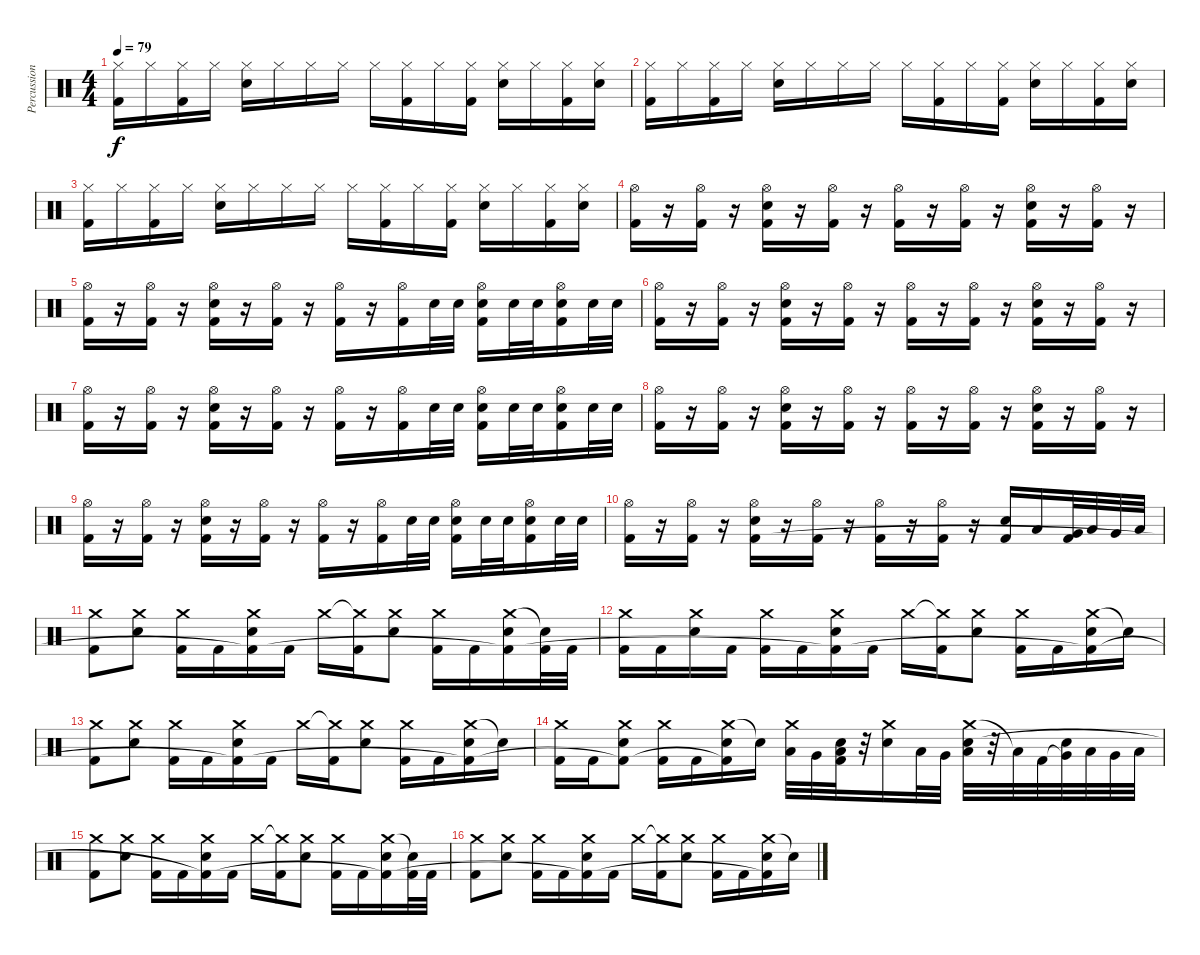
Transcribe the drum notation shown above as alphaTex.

\track ("Percussion" "Percussion") {instrument percussion}
\staff {score}
\articulation defaults
\ts (4 4)
\tempo 79
\clef neutral
\ks c
("Hi-Hat (closed)" "Kick (hit) 2").16{dy f} "Hi-Hat (closed)".16 ("Hi-Hat (closed)" "Kick (hit) 2").16 "Hi-Hat (closed)".16 ("Hi-Hat (closed)" "Snare (hit) 2").16 "Hi-Hat (closed)".16 "Hi-Hat (closed)".16 "Hi-Hat (closed)".16 "Hi-Hat (closed)".16 ("Hi-Hat (closed)" "Kick (hit) 2").16 "Hi-Hat (closed)".16 ("Hi-Hat (closed)" "Kick (hit) 2").16 ("Hi-Hat (closed)" "Snare (hit) 2").16 "Hi-Hat (closed)".16 ("Hi-Hat (closed)" "Kick (hit) 2").16 ("Hi-Hat (closed)" "Snare (hit) 2").16 |
("Hi-Hat (closed)" "Kick (hit) 2").16 "Hi-Hat (closed)".16 ("Hi-Hat (closed)" "Kick (hit) 2").16 "Hi-Hat (closed)".16 ("Hi-Hat (closed)" "Snare (hit) 2").16 "Hi-Hat (closed)".16 "Hi-Hat (closed)".16 "Hi-Hat (closed)".16 "Hi-Hat (closed)".16 ("Hi-Hat (closed)" "Kick (hit) 2").16 "Hi-Hat (closed)".16 ("Hi-Hat (closed)" "Kick (hit) 2").16 ("Hi-Hat (closed)" "Snare (hit) 2").16 "Hi-Hat (closed)".16 ("Hi-Hat (closed)" "Kick (hit) 2").16 ("Hi-Hat (closed)" "Snare (hit) 2").16 |
("Hi-Hat (closed)" "Kick (hit) 2").16 "Hi-Hat (closed)".16 ("Hi-Hat (closed)" "Kick (hit) 2").16 "Hi-Hat (closed)".16 ("Hi-Hat (closed)" "Snare (hit) 2").16 "Hi-Hat (closed)".16 "Hi-Hat (closed)".16 "Hi-Hat (closed)".16 "Hi-Hat (closed)".16 ("Hi-Hat (closed)" "Kick (hit) 2").16 "Hi-Hat (closed)".16 ("Hi-Hat (closed)" "Kick (hit) 2").16 ("Hi-Hat (closed)" "Snare (hit) 2").16 "Hi-Hat (closed)".16 ("Hi-Hat (closed)" "Kick (hit) 2").16 ("Hi-Hat (closed)" "Snare (hit) 2").16 |
("Hi-Hat (open)" "Kick (hit) 2").16 r.16 ("Hi-Hat (open)" "Kick (hit) 2").16 r.16 ("Hi-Hat (open)" "Snare (hit) 2" "Kick (hit) 2").16 r.16 ("Hi-Hat (open)" "Kick (hit) 2").16 r.16 ("Hi-Hat (open)" "Kick (hit) 2").16 r.16 ("Hi-Hat (open)" "Kick (hit) 2").16 r.16 ("Hi-Hat (open)" "Snare (hit) 2" "Kick (hit) 2").16 r.16 ("Hi-Hat (open)" "Kick (hit) 2").16 r.16 |
("Hi-Hat (open)" "Kick (hit) 2").16 r.16 ("Hi-Hat (open)" "Kick (hit) 2").16 r.16 ("Hi-Hat (open)" "Snare (hit) 2" "Kick (hit) 2").16 r.16 ("Hi-Hat (open)" "Kick (hit) 2").16 r.16 ("Hi-Hat (open)" "Kick (hit) 2").16 r.16 ("Hi-Hat (open)" "Kick (hit) 2").16 "Snare (hit) 2".32 "Snare (hit) 2".32 ("Hi-Hat (open)" "Snare (hit) 2" "Kick (hit) 2").16 "Snare (hit) 2".32 "Snare (hit) 2".32 ("Hi-Hat (open)" "Snare (hit) 2" "Kick (hit) 2").16 "Snare (hit) 2".32 "Snare (hit) 2".32 |
("Hi-Hat (open)" "Kick (hit) 2").16 r.16 ("Hi-Hat (open)" "Kick (hit) 2").16 r.16 ("Hi-Hat (open)" "Snare (hit) 2" "Kick (hit) 2").16 r.16 ("Hi-Hat (open)" "Kick (hit) 2").16 r.16 ("Hi-Hat (open)" "Kick (hit) 2").16 r.16 ("Hi-Hat (open)" "Kick (hit) 2").16 r.16 ("Hi-Hat (open)" "Snare (hit) 2" "Kick (hit) 2").16 r.16 ("Hi-Hat (open)" "Kick (hit) 2").16 r.16 |
("Hi-Hat (open)" "Kick (hit) 2").16 r.16 ("Hi-Hat (open)" "Kick (hit) 2").16 r.16 ("Hi-Hat (open)" "Snare (hit) 2" "Kick (hit) 2").16 r.16 ("Hi-Hat (open)" "Kick (hit) 2").16 r.16 ("Hi-Hat (open)" "Kick (hit) 2").16 r.16 ("Hi-Hat (open)" "Kick (hit) 2").16 "Snare (hit) 2".32 "Snare (hit) 2".32 ("Hi-Hat (open)" "Snare (hit) 2" "Kick (hit) 2").16 "Snare (hit) 2".32 "Snare (hit) 2".32 ("Hi-Hat (open)" "Snare (hit) 2" "Kick (hit) 2").16 "Snare (hit) 2".32 "Snare (hit) 2".32 |
("Hi-Hat (open)" "Kick (hit) 2").16 r.16 ("Hi-Hat (open)" "Kick (hit) 2").16 r.16 ("Hi-Hat (open)" "Snare (hit) 2" "Kick (hit) 2").16 r.16 ("Hi-Hat (open)" "Kick (hit) 2").16 r.16 ("Hi-Hat (open)" "Kick (hit) 2").16 r.16 ("Hi-Hat (open)" "Kick (hit) 2").16 r.16 ("Hi-Hat (open)" "Snare (hit) 2" "Kick (hit) 2").16 r.16 ("Hi-Hat (open)" "Kick (hit) 2").16 r.16 |
("Hi-Hat (open)" "Kick (hit) 2").16 r.16 ("Hi-Hat (open)" "Kick (hit) 2").16 r.16 ("Hi-Hat (open)" "Snare (hit) 2" "Kick (hit) 2").16 r.16 ("Hi-Hat (open)" "Kick (hit) 2").16 r.16 ("Hi-Hat (open)" "Kick (hit) 2").16 r.16 ("Hi-Hat (open)" "Kick (hit) 2").16 "Snare (hit) 2".32 "Snare (hit) 2".32 ("Hi-Hat (open)" "Snare (hit) 2" "Kick (hit) 2").16 "Snare (hit) 2".32 "Snare (hit) 2".32 ("Hi-Hat (open)" "Snare (hit) 2" "Kick (hit) 2").16 "Snare (hit) 2".32 "Snare (hit) 2".32 |
("Hi-Hat (open)" "Kick (hit) 2").16 r.16 ("Hi-Hat (open)" "Kick (hit) 2").16 r.16 ("Hi-Hat (open)" "Snare (hit) 2" "Kick (hit) 2").16 r.16 ("Hi-Hat (open)" "Kick (hit) 2").16 r.16 ("Hi-Hat (open)" "Kick (hit) 2").16 r.16 ("Hi-Hat (open)" "Kick (hit) 2").16 r.16 ("Snare (hit) 2" "Kick (hit) 2").16 "Low Tom (hit)".16 ("Very Low Tom (hit)" "Kick (hit) 2").32 "Low Tom (hit)".32 "Very Low Tom (hit)".32 "Low Floor Tom (hit)".32 |
("Crash medium (hit)" "Kick (hit) 2").8 ("Crash medium (hit)" "Snare (hit) 2").8 ("Crash medium (hit)" "Kick (hit) 2").16 "Kick (hit) 2".16 ("Crash medium (hit)" "Snare (hit) 2" "Kick (hit) 2"{t}).16 "Kick (hit) 2".16 "Crash medium (hit)".16 ("Crash medium (hit)"{t} "Kick (hit) 2").16 ("Crash medium (hit)" "Snare (hit) 2").8 ("Crash medium (hit)" "Kick (hit) 2").16 "Kick (hit) 2".16 ("Crash medium (hit)" "Snare (hit) 2" "Kick (hit) 2"{t}).16 ("Snare (hit)"{t} "Kick (hit) 2").32 "Kick (hit) 2".32 |
("Crash medium (hit)" "Kick (hit) 2").16 "Kick (hit) 2".16 ("Crash medium (hit)" "Snare (hit) 2").16 "Kick (hit) 2".16 ("Crash medium (hit)" "Kick (hit) 2").16 "Kick (hit) 2".16 ("Crash medium (hit)" "Snare (hit) 2" "Kick (hit) 2"{t}).16 "Kick (hit) 2".16 "Crash medium (hit)".16 ("Crash medium (hit)"{t} "Kick (hit) 2").16 ("Crash medium (hit)" "Snare (hit) 2").8 ("Crash medium (hit)" "Kick (hit) 2").16 "Kick (hit) 2".16 ("Crash medium (hit)" "Snare (hit) 2" "Kick (hit) 2"{t}).16 "Snare (hit)"{t}.16 |
("Crash medium (hit)" "Kick (hit) 2").8 ("Crash medium (hit)" "Snare (hit) 2").8 ("Crash medium (hit)" "Kick (hit) 2").16 "Kick (hit) 2".16 ("Crash medium (hit)" "Snare (hit) 2" "Kick (hit) 2"{t}).16 "Kick (hit) 2".16 "Crash medium (hit)".16 ("Crash medium (hit)"{t} "Kick (hit) 2").16 ("Crash medium (hit)" "Snare (hit) 2").8 ("Crash medium (hit)" "Kick (hit) 2").16 "Kick (hit) 2".16 ("Crash medium (hit)" "Snare (hit) 2" "Kick (hit) 2"{t}).16 "Snare (hit)"{t}.16 |
("Crash medium (hit)" "Kick (hit) 2").16 "Kick (hit) 2".16 ("Crash medium (hit)" "Snare (hit) 2" "Kick (hit) 2"{t}).8 ("Crash medium (hit)" "Kick (hit) 2").16 "Kick (hit) 2".16 ("Crash medium (hit)" "Snare (hit) 2" "Kick (hit) 2"{t}).16 "Snare (hit)"{t}.16 ("Crash medium (hit)" "Low Tom (hit)").32 "Very Low Tom (hit)".32 ("Low Floor Tom (hit)" "Snare (hit) 2" "Kick (hit) 2").32 r.32 ("Crash medium (hit)" "Snare (hit) 2").16 "Low Tom (hit)".32 "Very Low Tom (hit)".32 ("Crash medium (hit)" "Low Tom (hit)" "Snare (hit) 2").32 r.32 "Low Floor Tom (hit)"{t}.32 "Kick (hit) 2".32 ("Very Low Tom (hit)"{t} "Snare (hit) 2").32 "Low Tom (hit)".32 "Very Low Tom (hit)".32 "Low Floor Tom (hit)".32 |
("Crash medium (hit)" "Kick (hit) 2").8 ("Crash medium (hit)" "Snare (hit) 2").8 ("Crash medium (hit)" "Kick (hit) 2").16 "Kick (hit) 2".16 ("Crash medium (hit)" "Snare (hit) 2" "Kick (hit) 2"{t}).16 "Kick (hit) 2".16 "Crash medium (hit)".16 ("Crash medium (hit)"{t} "Kick (hit) 2").16 ("Crash medium (hit)" "Snare (hit) 2").8 ("Crash medium (hit)" "Kick (hit) 2").16 "Kick (hit) 2".16 ("Crash medium (hit)" "Snare (hit) 2" "Kick (hit) 2"{t}).16 ("Snare (hit)"{t} "Kick (hit) 2").32 "Kick (hit) 2".32 |
("Crash medium (hit)" "Kick (hit) 2").8 ("Crash medium (hit)" "Snare (hit) 2").8 ("Crash medium (hit)" "Kick (hit) 2").16 "Kick (hit) 2".16 ("Crash medium (hit)" "Snare (hit) 2" "Kick (hit) 2"{t}).16 "Kick (hit) 2".16 "Crash medium (hit)".16 ("Crash medium (hit)"{t} "Kick (hit) 2").16 ("Crash medium (hit)" "Snare (hit) 2").8 ("Crash medium (hit)" "Kick (hit) 2").16 "Kick (hit) 2".16 ("Crash medium (hit)" "Snare (hit) 2" "Kick (hit) 2"{t}).16 "Snare (hit)"{t}.16
